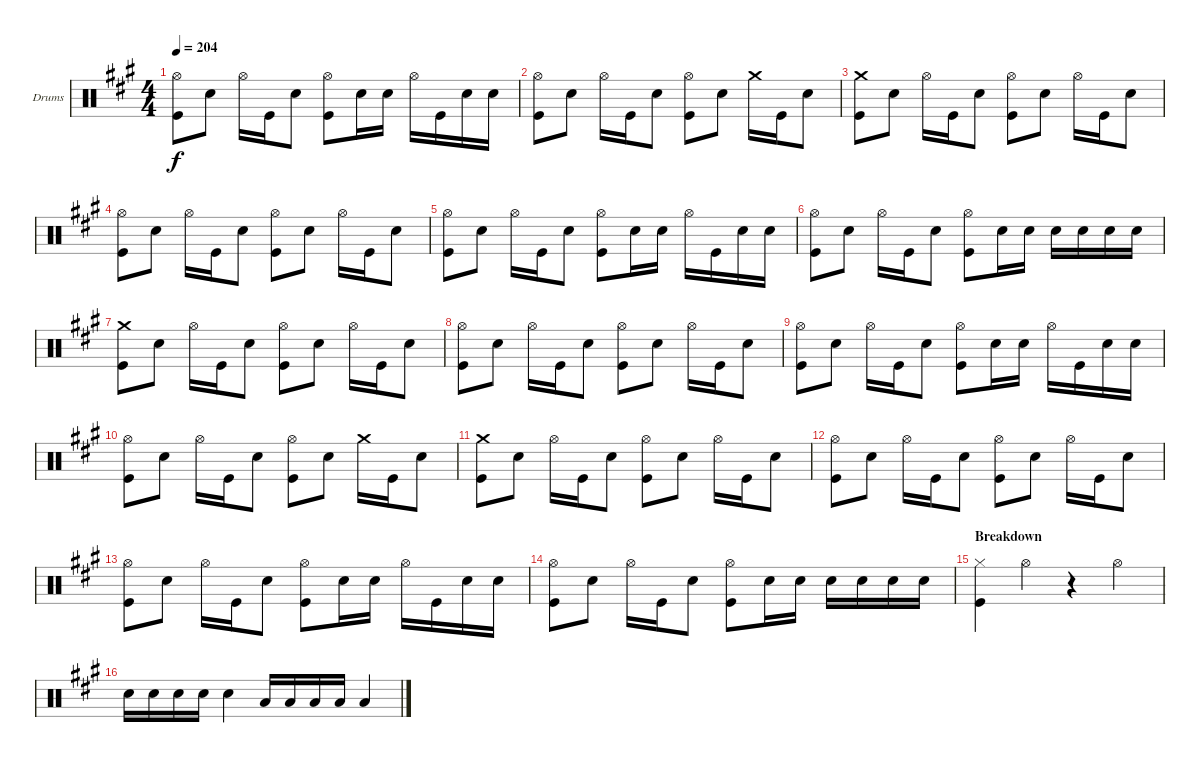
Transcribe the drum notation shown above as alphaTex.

\bracketExtendMode groupsimilarinstruments
\firstSystemTrackNameOrientation horizontal
\otherSystemsTrackNameOrientation horizontal
\track ("Drumkit" "Drums") {instrument percussion}
\staff {score}
\articulation defaults
\ts (4 4)
\tempo 204
\clef neutral
\ks a
("Hi-Hat (open)" "Kick (hit)").8{dy f} "Snare (hit) 2".8 "Hi-Hat (open)".16 "Kick (hit)".16 "Snare (hit) 2".8 ("Hi-Hat (open)" "Kick (hit)").8 "Snare (hit) 2".16 "Snare (hit) 2".16 "Hi-Hat (open)".16 "Kick (hit)".16 "Snare (hit) 2".16 "Snare (hit) 2".16 |
("Hi-Hat (open)" "Kick (hit)").8 "Snare (hit) 2".8 "Hi-Hat (open)".16 "Kick (hit)".16 "Snare (hit) 2".8 ("Hi-Hat (open)" "Kick (hit)").8 "Snare (hit) 2".8 "Crash medium (hit)".16 "Kick (hit)".16 "Snare (hit) 2".8 |
("Crash medium (hit)" "Kick (hit)").8 "Snare (hit) 2".8 "Hi-Hat (open)".16 "Kick (hit)".16 "Snare (hit) 2".8 ("Hi-Hat (open)" "Kick (hit)").8 "Snare (hit) 2".8 "Hi-Hat (open)".16 "Kick (hit)".16 "Snare (hit) 2".8 |
("Hi-Hat (open)" "Kick (hit)").8 "Snare (hit) 2".8 "Hi-Hat (open)".16 "Kick (hit)".16 "Snare (hit) 2".8 ("Hi-Hat (open)" "Kick (hit)").8 "Snare (hit) 2".8 "Hi-Hat (open)".16 "Kick (hit)".16 "Snare (hit) 2".8 |
("Hi-Hat (open)" "Kick (hit)").8 "Snare (hit) 2".8 "Hi-Hat (open)".16 "Kick (hit)".16 "Snare (hit) 2".8 ("Hi-Hat (open)" "Kick (hit)").8 "Snare (hit) 2".16 "Snare (hit) 2".16 "Hi-Hat (open)".16 "Kick (hit)".16 "Snare (hit) 2".16 "Snare (hit) 2".16 |
("Hi-Hat (open)" "Kick (hit)").8 "Snare (hit) 2".8 "Hi-Hat (open)".16 "Kick (hit)".16 "Snare (hit) 2".8 ("Hi-Hat (open)" "Kick (hit)").8 "Snare (hit) 2".16 "Snare (hit) 2".16 "Snare (hit) 2".16 "Snare (hit) 2".16 "Snare (hit) 2".16 "Snare (hit) 2".16 |
("Crash medium (hit)" "Kick (hit)").8 "Snare (hit) 2".8 "Hi-Hat (open)".16 "Kick (hit)".16 "Snare (hit) 2".8 ("Hi-Hat (open)" "Kick (hit)").8 "Snare (hit) 2".8 "Hi-Hat (open)".16 "Kick (hit)".16 "Snare (hit) 2".8 |
("Hi-Hat (open)" "Kick (hit)").8 "Snare (hit) 2".8 "Hi-Hat (open)".16 "Kick (hit)".16 "Snare (hit) 2".8 ("Hi-Hat (open)" "Kick (hit)").8 "Snare (hit) 2".8 "Hi-Hat (open)".16 "Kick (hit)".16 "Snare (hit) 2".8 |
("Hi-Hat (open)" "Kick (hit)").8 "Snare (hit) 2".8 "Hi-Hat (open)".16 "Kick (hit)".16 "Snare (hit) 2".8 ("Hi-Hat (open)" "Kick (hit)").8 "Snare (hit) 2".16 "Snare (hit) 2".16 "Hi-Hat (open)".16 "Kick (hit)".16 "Snare (hit) 2".16 "Snare (hit) 2".16 |
("Hi-Hat (open)" "Kick (hit)").8 "Snare (hit) 2".8 "Hi-Hat (open)".16 "Kick (hit)".16 "Snare (hit) 2".8 ("Hi-Hat (open)" "Kick (hit)").8 "Snare (hit) 2".8 "Crash medium (hit)".16 "Kick (hit)".16 "Snare (hit) 2".8 |
("Crash medium (hit)" "Kick (hit)").8 "Snare (hit) 2".8 "Hi-Hat (open)".16 "Kick (hit)".16 "Snare (hit) 2".8 ("Hi-Hat (open)" "Kick (hit)").8 "Snare (hit) 2".8 "Hi-Hat (open)".16 "Kick (hit)".16 "Snare (hit) 2".8 |
("Hi-Hat (open)" "Kick (hit)").8 "Snare (hit) 2".8 "Hi-Hat (open)".16 "Kick (hit)".16 "Snare (hit) 2".8 ("Hi-Hat (open)" "Kick (hit)").8 "Snare (hit) 2".8 "Hi-Hat (open)".16 "Kick (hit)".16 "Snare (hit) 2".8 |
("Hi-Hat (open)" "Kick (hit)").8 "Snare (hit) 2".8 "Hi-Hat (open)".16 "Kick (hit)".16 "Snare (hit) 2".8 ("Hi-Hat (open)" "Kick (hit)").8 "Snare (hit) 2".16 "Snare (hit) 2".16 "Hi-Hat (open)".16 "Kick (hit)".16 "Snare (hit) 2".16 "Snare (hit) 2".16 |
("Hi-Hat (open)" "Kick (hit)").8 "Snare (hit) 2".8 "Hi-Hat (open)".16 "Kick (hit)".16 "Snare (hit) 2".8 ("Hi-Hat (open)" "Kick (hit)").8 "Snare (hit) 2".16 "Snare (hit) 2".16 "Snare (hit) 2".16 "Snare (hit) 2".16 "Snare (hit) 2".16 "Snare (hit) 2".16 |
\section ("" "Breakdown")
("Hi-Hat (closed)" "Kick (hit)").4 "Hi-Hat (open)".4 r.4 "Hi-Hat (open)".4 |
"Snare (hit) 2".16 "Snare (hit) 2".16 "Snare (hit) 2".16 "Snare (hit) 2".16 "Snare (hit) 2".4 "Low Tom (hit)".16 "Low Tom (hit)".16 "Low Tom (hit)".16 "Low Tom (hit)".16 "Low Tom (hit)".4
